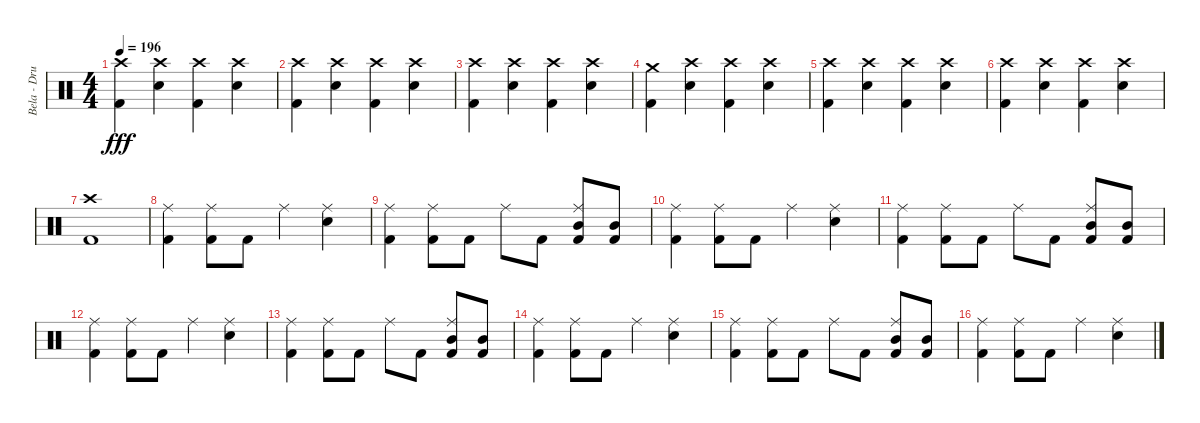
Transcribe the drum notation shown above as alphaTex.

\track ("Bela - Drums" "Bela - Dru") {instrument percussion}
\staff {score}
\articulation defaults
\ts (4 4)
\tempo 196
\clef neutral
\ks c
("Crash high (hit)" "Kick (hit) 2").4{dy fff} ("Crash high (hit)" "Electric Snare (hit)").4 ("Crash high (hit)" "Kick (hit) 2").4 ("Crash high (hit)" "Electric Snare (hit)").4 |
("Crash high (hit)" "Kick (hit) 2").4 ("Crash high (hit)" "Electric Snare (hit)").4 ("Crash high (hit)" "Kick (hit) 2").4 ("Crash high (hit)" "Electric Snare (hit)").4 |
("Crash high (hit)" "Kick (hit) 2").4 ("Crash high (hit)" "Electric Snare (hit)").4 ("Crash high (hit)" "Kick (hit) 2").4 ("Crash high (hit)" "Electric Snare (hit)").4 |
("Crash medium (hit)" "Kick (hit) 2").4 ("Crash high (hit)" "Electric Snare (hit)").4 ("Crash high (hit)" "Kick (hit) 2").4 ("Crash high (hit)" "Electric Snare (hit)").4 |
("Crash high (hit)" "Kick (hit) 2").4 ("Crash high (hit)" "Electric Snare (hit)").4 ("Crash high (hit)" "Kick (hit) 2").4 ("Crash high (hit)" "Electric Snare (hit)").4 |
("Crash high (hit)" "Kick (hit) 2").4 ("Crash high (hit)" "Electric Snare (hit)").4 ("Crash high (hit)" "Kick (hit) 2").4 ("Crash high (hit)" "Electric Snare (hit)").4 |
("Crash high (hit)" "Kick (hit) 2").1 |
("Ride (middle)" "Kick (hit) 2").4 ("Ride (middle)" "Kick (hit) 2").8 "Kick (hit) 2".8 "Ride (middle)".4 ("Ride (middle)" "Electric Snare (hit)").4 |
("Ride (middle)" "Kick (hit) 2").4 ("Ride (middle)" "Kick (hit) 2").8 "Kick (hit) 2".8 "Ride (middle)".8 "Kick (hit) 2".8 ("Ride (middle)" "Mid Tom (hit)" "Kick (hit) 2").8 ("Mid Tom (hit)" "Kick (hit) 2").8 |
("Ride (middle)" "Kick (hit) 2").4 ("Ride (middle)" "Kick (hit) 2").8 "Kick (hit) 2".8 "Ride (middle)".4 ("Ride (middle)" "Electric Snare (hit)").4 |
("Ride (middle)" "Kick (hit) 2").4 ("Ride (middle)" "Kick (hit) 2").8 "Kick (hit) 2".8 "Ride (middle)".8 "Kick (hit) 2".8 ("Ride (middle)" "Mid Tom (hit)" "Kick (hit) 2").8 ("Mid Tom (hit)" "Kick (hit) 2").8 |
("Ride (middle)" "Kick (hit) 2").4 ("Ride (middle)" "Kick (hit) 2").8 "Kick (hit) 2".8 "Ride (middle)".4 ("Ride (middle)" "Electric Snare (hit)").4 |
("Ride (middle)" "Kick (hit) 2").4 ("Ride (middle)" "Kick (hit) 2").8 "Kick (hit) 2".8 "Ride (middle)".8 "Kick (hit) 2".8 ("Ride (middle)" "Mid Tom (hit)" "Kick (hit) 2").8 ("Mid Tom (hit)" "Kick (hit) 2").8 |
("Ride (middle)" "Kick (hit) 2").4 ("Ride (middle)" "Kick (hit) 2").8 "Kick (hit) 2".8 "Ride (middle)".4 ("Ride (middle)" "Electric Snare (hit)").4 |
("Ride (middle)" "Kick (hit) 2").4 ("Ride (middle)" "Kick (hit) 2").8 "Kick (hit) 2".8 "Ride (middle)".8 "Kick (hit) 2".8 ("Ride (middle)" "Mid Tom (hit)" "Kick (hit) 2").8 ("Mid Tom (hit)" "Kick (hit) 2").8 |
("Ride (middle)" "Kick (hit) 2").4 ("Ride (middle)" "Kick (hit) 2").8 "Kick (hit) 2".8 "Ride (middle)".4 ("Ride (middle)" "Electric Snare (hit)").4
